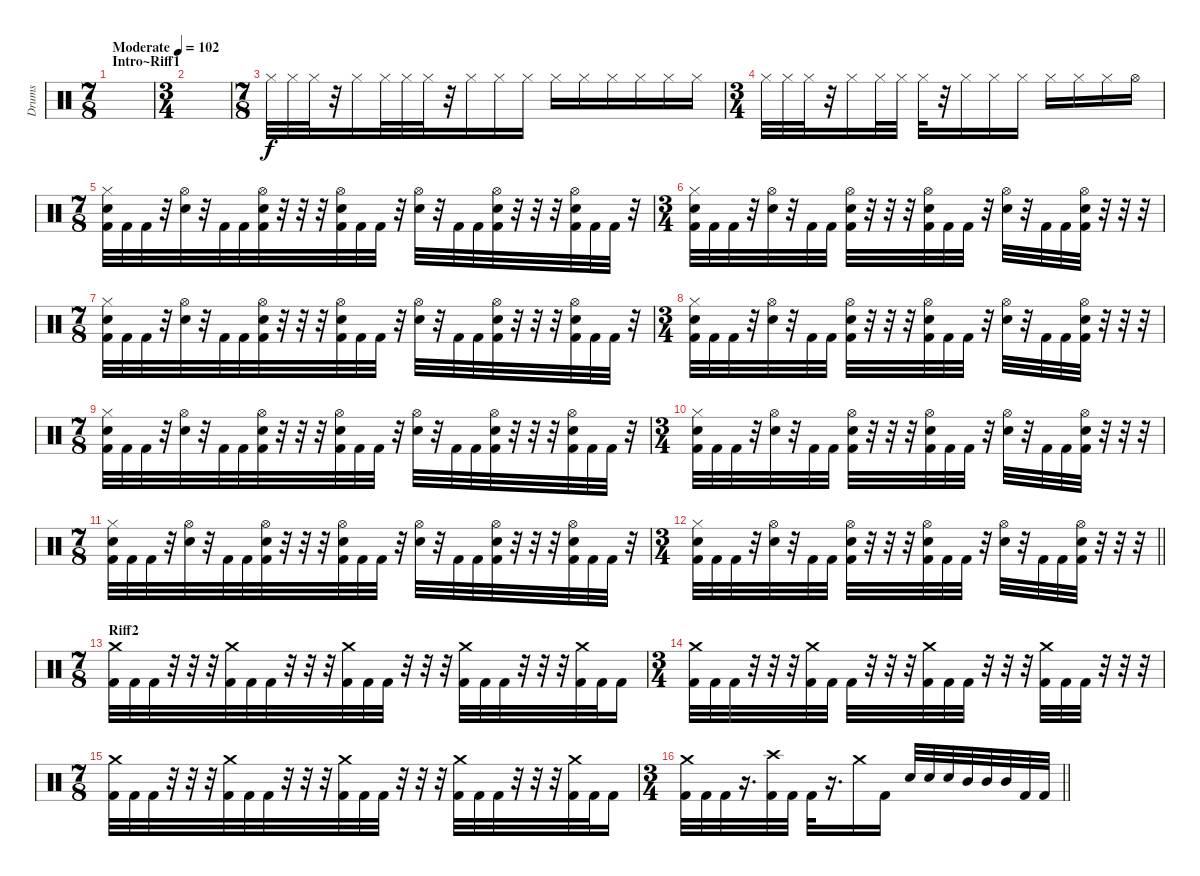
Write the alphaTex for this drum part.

\track ("Drums" "Drums") {instrument percussion}
\staff {score}
\articulation defaults
\ts (7 8)
\section ("" "Intro~Riff1")
\tempo (102 "Moderate")
\clef neutral
\ks c
|
\ts (3 4)
|
\ts (7 8)
"Hi-Hat (closed)".32 "Hi-Hat (closed)".32 "Hi-Hat (closed)".32 r.32 "Hi-Hat (closed)".16 "Hi-Hat (closed)".32 "Hi-Hat (closed)".32 "Hi-Hat (closed)".32 r.32 "Hi-Hat (closed)".16 "Hi-Hat (closed)".16 "Hi-Hat (closed)".16 "Hi-Hat (closed)".16 "Hi-Hat (closed)".16 "Hi-Hat (closed)".16 "Hi-Hat (closed)".16 "Hi-Hat (closed)".16 "Hi-Hat (closed)".16 |
\ts (3 4)
"Hi-Hat (closed)".32 "Hi-Hat (closed)".32 "Hi-Hat (closed)".32 r.32 "Hi-Hat (closed)".16 "Hi-Hat (closed)".32 "Hi-Hat (closed)".32 "Hi-Hat (closed)".32 r.32 "Hi-Hat (closed)".16 "Hi-Hat (closed)".16 "Hi-Hat (closed)".16 "Hi-Hat (closed)".16 "Hi-Hat (closed)".16 "Hi-Hat (closed)".16 "Hi-Hat (open)".16 |
\ts (7 8)
("Hi-Hat (closed)" "Electric Snare (hit)" "Kick (hit) 2").32 "Kick (hit) 2".32 "Kick (hit) 2".32 r.32 ("Hi-Hat (open)" "Electric Snare (hit)").32 r.32 "Kick (hit) 2".32 "Kick (hit) 2".32 ("Hi-Hat (open)" "Electric Snare (hit)" "Kick (hit) 2").32 r.32 r.32 r.32 ("Hi-Hat (open)" "Electric Snare (hit)" "Kick (hit) 2").32 "Kick (hit) 2".32 "Kick (hit) 2".32 r.32 ("Hi-Hat (open)" "Electric Snare (hit)").32 r.32 "Kick (hit) 2".32 "Kick (hit) 2".32 ("Hi-Hat (open)" "Electric Snare (hit)" "Kick (hit) 2").32 r.32 r.32 r.32 ("Hi-Hat (open)" "Electric Snare (hit)" "Kick (hit) 2").32 "Kick (hit) 2".32 "Kick (hit) 2".32 r.32 |
\ts (3 4)
("Hi-Hat (closed)" "Electric Snare (hit)" "Kick (hit) 2").32 "Kick (hit) 2".32 "Kick (hit) 2".32 r.32 ("Hi-Hat (open)" "Electric Snare (hit)").32 r.32 "Kick (hit) 2".32 "Kick (hit) 2".32 ("Hi-Hat (open)" "Electric Snare (hit)" "Kick (hit) 2").32 r.32 r.32 r.32 ("Hi-Hat (open)" "Electric Snare (hit)" "Kick (hit) 2").32 "Kick (hit) 2".32 "Kick (hit) 2".32 r.32 ("Hi-Hat (open)" "Electric Snare (hit)").32 r.32 "Kick (hit) 2".32 "Kick (hit) 2".32 ("Hi-Hat (open)" "Electric Snare (hit)" "Kick (hit) 2").32 r.32 r.32 r.32 |
\ts (7 8)
("Hi-Hat (closed)" "Electric Snare (hit)" "Kick (hit) 2").32 "Kick (hit) 2".32 "Kick (hit) 2".32 r.32 ("Hi-Hat (open)" "Electric Snare (hit)").32 r.32 "Kick (hit) 2".32 "Kick (hit) 2".32 ("Hi-Hat (open)" "Electric Snare (hit)" "Kick (hit) 2").32 r.32 r.32 r.32 ("Hi-Hat (open)" "Electric Snare (hit)" "Kick (hit) 2").32 "Kick (hit) 2".32 "Kick (hit) 2".32 r.32 ("Hi-Hat (open)" "Electric Snare (hit)").32 r.32 "Kick (hit) 2".32 "Kick (hit) 2".32 ("Hi-Hat (open)" "Electric Snare (hit)" "Kick (hit) 2").32 r.32 r.32 r.32 ("Hi-Hat (open)" "Electric Snare (hit)" "Kick (hit) 2").32 "Kick (hit) 2".32 "Kick (hit) 2".32 r.32 |
\ts (3 4)
("Hi-Hat (closed)" "Electric Snare (hit)" "Kick (hit) 2").32 "Kick (hit) 2".32 "Kick (hit) 2".32 r.32 ("Hi-Hat (open)" "Electric Snare (hit)").32 r.32 "Kick (hit) 2".32 "Kick (hit) 2".32 ("Hi-Hat (open)" "Electric Snare (hit)" "Kick (hit) 2").32 r.32 r.32 r.32 ("Hi-Hat (open)" "Electric Snare (hit)" "Kick (hit) 2").32 "Kick (hit) 2".32 "Kick (hit) 2".32 r.32 ("Hi-Hat (open)" "Electric Snare (hit)").32 r.32 "Kick (hit) 2".32 "Kick (hit) 2".32 ("Hi-Hat (open)" "Electric Snare (hit)" "Kick (hit) 2").32 r.32 r.32 r.32 |
\ts (7 8)
("Hi-Hat (closed)" "Electric Snare (hit)" "Kick (hit) 2").32 "Kick (hit) 2".32 "Kick (hit) 2".32 r.32 ("Hi-Hat (open)" "Electric Snare (hit)").32 r.32 "Kick (hit) 2".32 "Kick (hit) 2".32 ("Hi-Hat (open)" "Electric Snare (hit)" "Kick (hit) 2").32 r.32 r.32 r.32 ("Hi-Hat (open)" "Electric Snare (hit)" "Kick (hit) 2").32 "Kick (hit) 2".32 "Kick (hit) 2".32 r.32 ("Hi-Hat (open)" "Electric Snare (hit)").32 r.32 "Kick (hit) 2".32 "Kick (hit) 2".32 ("Hi-Hat (open)" "Electric Snare (hit)" "Kick (hit) 2").32 r.32 r.32 r.32 ("Hi-Hat (open)" "Electric Snare (hit)" "Kick (hit) 2").32 "Kick (hit) 2".32 "Kick (hit) 2".32 r.32 |
\ts (3 4)
("Hi-Hat (closed)" "Electric Snare (hit)" "Kick (hit) 2").32 "Kick (hit) 2".32 "Kick (hit) 2".32 r.32 ("Hi-Hat (open)" "Electric Snare (hit)").32 r.32 "Kick (hit) 2".32 "Kick (hit) 2".32 ("Hi-Hat (open)" "Electric Snare (hit)" "Kick (hit) 2").32 r.32 r.32 r.32 ("Hi-Hat (open)" "Electric Snare (hit)" "Kick (hit) 2").32 "Kick (hit) 2".32 "Kick (hit) 2".32 r.32 ("Hi-Hat (open)" "Electric Snare (hit)").32 r.32 "Kick (hit) 2".32 "Kick (hit) 2".32 ("Hi-Hat (open)" "Electric Snare (hit)" "Kick (hit) 2").32 r.32 r.32 r.32 |
\ts (7 8)
("Hi-Hat (closed)" "Electric Snare (hit)" "Kick (hit) 2").32 "Kick (hit) 2".32 "Kick (hit) 2".32 r.32 ("Hi-Hat (open)" "Electric Snare (hit)").32 r.32 "Kick (hit) 2".32 "Kick (hit) 2".32 ("Hi-Hat (open)" "Electric Snare (hit)" "Kick (hit) 2").32 r.32 r.32 r.32 ("Hi-Hat (open)" "Electric Snare (hit)" "Kick (hit) 2").32 "Kick (hit) 2".32 "Kick (hit) 2".32 r.32 ("Hi-Hat (open)" "Electric Snare (hit)").32 r.32 "Kick (hit) 2".32 "Kick (hit) 2".32 ("Hi-Hat (open)" "Electric Snare (hit)" "Kick (hit) 2").32 r.32 r.32 r.32 ("Hi-Hat (open)" "Electric Snare (hit)" "Kick (hit) 2").32 "Kick (hit) 2".32 "Kick (hit) 2".32 r.32 |
\ts (3 4)
\barLineRight lightlight
("Hi-Hat (closed)" "Electric Snare (hit)" "Kick (hit) 2").32 "Kick (hit) 2".32 "Kick (hit) 2".32 r.32 ("Hi-Hat (open)" "Electric Snare (hit)").32 r.32 "Kick (hit) 2".32 "Kick (hit) 2".32 ("Hi-Hat (open)" "Electric Snare (hit)" "Kick (hit) 2").32 r.32 r.32 r.32 ("Hi-Hat (open)" "Electric Snare (hit)" "Kick (hit) 2").32 "Kick (hit) 2".32 "Kick (hit) 2".32 r.32 ("Hi-Hat (open)" "Electric Snare (hit)").32 r.32 "Kick (hit) 2".32 "Kick (hit) 2".32 ("Hi-Hat (open)" "Electric Snare (hit)" "Kick (hit) 2").32 r.32 r.32 r.32 |
\ts (7 8)
\section ("" "Riff2")
("Crash medium (hit)" "Kick (hit) 2").32 "Kick (hit) 2".32 "Kick (hit) 2".32 r.32 r.32 r.32 ("Crash medium (hit)" "Kick (hit) 2").32 "Kick (hit) 2".32 "Kick (hit) 2".32 r.32 r.32 r.32 ("Crash medium (hit)" "Kick (hit) 2").32 "Kick (hit) 2".32 "Kick (hit) 2".32 r.32 r.32 r.32 ("Crash medium (hit)" "Kick (hit) 2").32 "Kick (hit) 2".32 "Kick (hit) 2".32 r.32 r.32 r.32 ("Crash medium (hit)" "Kick (hit) 2").32 "Kick (hit) 2".32 "Kick (hit) 2".16 |
\ts (3 4)
("Crash medium (hit)" "Kick (hit) 2").32 "Kick (hit) 2".32 "Kick (hit) 2".32 r.32 r.32 r.32 ("Crash medium (hit)" "Kick (hit) 2").32 "Kick (hit) 2".32 "Kick (hit) 2".32 r.32 r.32 r.32 ("Crash medium (hit)" "Kick (hit) 2").32 "Kick (hit) 2".32 "Kick (hit) 2".32 r.32 r.32 r.32 ("Crash medium (hit)" "Kick (hit) 2").32 "Kick (hit) 2".32 "Kick (hit) 2".32 r.32 r.32 r.32 |
\ts (7 8)
("Crash medium (hit)" "Kick (hit) 2").32 "Kick (hit) 2".32 "Kick (hit) 2".32 r.32 r.32 r.32 ("Crash medium (hit)" "Kick (hit) 2").32 "Kick (hit) 2".32 "Kick (hit) 2".32 r.32 r.32 r.32 ("Crash medium (hit)" "Kick (hit) 2").32 "Kick (hit) 2".32 "Kick (hit) 2".32 r.32 r.32 r.32 ("Crash medium (hit)" "Kick (hit) 2").32 "Kick (hit) 2".32 "Kick (hit) 2".32 r.32 r.32 r.32 ("Crash medium (hit)" "Kick (hit) 2").32 "Kick (hit) 2".32 "Kick (hit) 2".16 |
\ts (3 4)
\barLineRight lightlight
("Crash medium (hit)" "Kick (hit) 2").32 "Kick (hit) 2".32 "Kick (hit) 2".32 r.16{d} ("Crash high (hit)" "Kick (hit) 2").32 "Kick (hit) 2".32 "Kick (hit) 2".32 r.16{d} "Crash medium (hit)".16 "Kick (hit) 2".16 "Electric Snare (hit)".32 "Electric Snare (hit)".32 "Electric Snare (hit)".32 "Mid Tom (hit)".32 "Mid Tom (hit)".32 "Mid Tom (hit)".32 "Kick (hit) 2".32 "Kick (hit) 2".32
